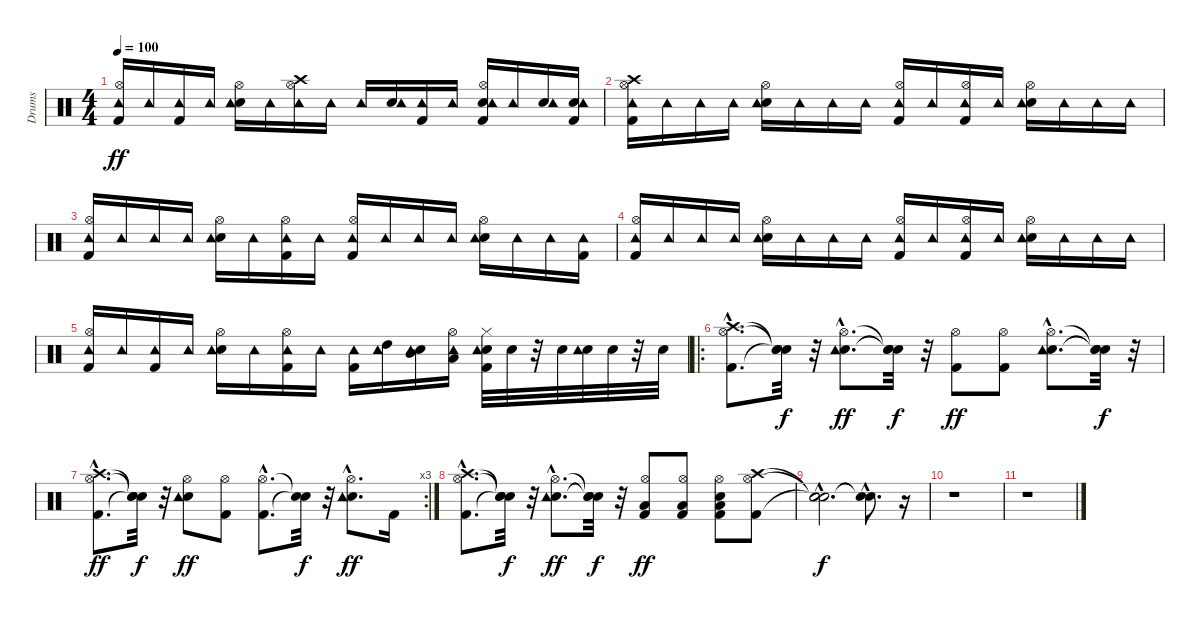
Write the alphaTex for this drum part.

\track ("Drums" "Drums") {instrument percussion}
\staff {score}
\articulation defaults
\ts (4 4)
\tempo 100
\clef neutral
\ks c
("Kick (hit) 2" "Hi-Hat (open)" "Tambourine (hit)").16{dy ff} "Tambourine (hit)".16 ("Kick (hit) 2" "Tambourine (hit)").16 "Tambourine (hit)".16 ("Snare (hit) 2" "Hi-Hat (open)" "Tambourine (hit)").16 "Tambourine (hit)".16 ("Hi-Hat (open)" "Crash high (hit)" "Tambourine (hit)").16 "Tambourine (hit)".16 "Tambourine (hit)".16 ("Snare (hit) 2" "Tambourine (hit)").16 ("Kick (hit) 2" "Tambourine (hit)").16 "Tambourine (hit)".16 ("Kick (hit) 2" "Snare (hit) 2" "Hi-Hat (open)" "Tambourine (hit)").16 "Tambourine (hit)".16 ("Snare (hit) 2" "Tambourine (hit)").16 ("Kick (hit) 2" "Snare (hit) 2" "Tambourine (hit)").16 |
("Kick (hit) 2" "Hi-Hat (open)" "Crash high (hit)" "Tambourine (hit)").16 "Tambourine (hit)".16 "Tambourine (hit)".16 "Tambourine (hit)".16 ("Snare (hit) 2" "Hi-Hat (open)" "Tambourine (hit)").16 "Tambourine (hit)".16 "Tambourine (hit)".16 "Tambourine (hit)".16 ("Kick (hit) 2" "Hi-Hat (open)" "Tambourine (hit)").16 "Tambourine (hit)".16 ("Kick (hit) 2" "Hi-Hat (open)" "Tambourine (hit)").16 "Tambourine (hit)".16 ("Snare (hit) 2" "Hi-Hat (open)" "Tambourine (hit)").16 "Tambourine (hit)".16 "Tambourine (hit)".16 "Tambourine (hit)".16 |
("Kick (hit) 2" "Hi-Hat (open)" "Tambourine (hit)").16 "Tambourine (hit)".16 "Tambourine (hit)".16 "Tambourine (hit)".16 ("Snare (hit) 2" "Hi-Hat (open)" "Tambourine (hit)").16 "Tambourine (hit)".16 ("Kick (hit) 2" "Hi-Hat (open)" "Tambourine (hit)").16 "Tambourine (hit)".16 ("Kick (hit) 2" "Hi-Hat (open)" "Tambourine (hit)").16 "Tambourine (hit)".16 "Tambourine (hit)".16 "Tambourine (hit)".16 ("Snare (hit) 2" "Hi-Hat (open)" "Tambourine (hit)").16 "Tambourine (hit)".16 "Tambourine (hit)".16 ("Kick (hit) 2" "Tambourine (hit)").16 |
("Kick (hit) 2" "Hi-Hat (open)" "Tambourine (hit)").16 "Tambourine (hit)".16 "Tambourine (hit)".16 "Tambourine (hit)".16 ("Snare (hit) 2" "Hi-Hat (open)" "Tambourine (hit)").16 "Tambourine (hit)".16 "Tambourine (hit)".16 "Tambourine (hit)".16 ("Kick (hit) 2" "Hi-Hat (open)" "Tambourine (hit)").16 "Tambourine (hit)".16 ("Kick (hit) 2" "Hi-Hat (open)" "Tambourine (hit)").16 "Tambourine (hit)".16 ("Snare (hit) 2" "Hi-Hat (open)" "Tambourine (hit)").16 "Tambourine (hit)".16 "Tambourine (hit)".16 "Tambourine (hit)".16 |
("Kick (hit) 2" "Hi-Hat (open)" "Tambourine (hit)").16 "Tambourine (hit)".16 ("Kick (hit) 2" "Tambourine (hit)").16 "Tambourine (hit)".16 ("Snare (hit) 2" "Hi-Hat (open)" "Tambourine (hit)").16 "Tambourine (hit)".16 ("Kick (hit) 2" "Hi-Hat (open)" "Tambourine (hit)").16 "Tambourine (hit)".16 ("Kick (hit) 2" "Tambourine (hit)").16 ("High Tom (hit)" "Tambourine (hit)").16 ("Snare (hit) 2" "Mid Tom (hit)" "Tambourine (hit)").16 ("Low Tom (hit)" "Hi-Hat (open)" "Tambourine (hit)").16 ("Kick (hit) 2" "Snare (hit) 2" "Hi-Hat (closed)" "Tambourine (hit)").32 "Snare (hit) 2".32 r.32 "Snare (hit) 2".32 ("Snare (hit) 2" "Tambourine (hit)").32 "Snare (hit) 2".32 r.32 "Snare (hit) 2".32 |
\ro
("Kick (hit) 2"{hac} "Hi-Hat (open)"{hac} "Crash high (hit)"{hac}).8{d} ("Snare (hit)"{t} "Snare (hit)"{t} "Snare (hit)"{t}).32{dy f} r.32 ("Snare (hit) 2"{hac} "Hi-Hat (open)"{hac} "Tambourine (hit)"{hac}).8{d dy ff} ("Snare (hit)"{t} "Snare (hit)"{t} "Snare (hit)"{t}).32{dy f} r.32 ("Kick (hit) 2" "Hi-Hat (open)").8{dy ff} ("Kick (hit) 2" "Hi-Hat (open)").8 ("Snare (hit) 2"{hac} "Hi-Hat (open)"{hac} "Tambourine (hit)"{hac}).8{d} ("Snare (hit)"{t} "Snare (hit)"{t} "Snare (hit)"{t}).32{dy f} r.32 |
\rc 3
("Kick (hit) 2"{hac} "Hi-Hat (open)"{hac} "Crash high (hit)"{hac}).8{d dy ff} ("Snare (hit)"{t} "Snare (hit)"{t} "Snare (hit)"{t}).32{dy f} r.32 ("Snare (hit) 2" "Hi-Hat (open)" "Tambourine (hit)").8{dy ff} ("Kick (hit) 2" "Hi-Hat (open)").8 ("Kick (hit) 2"{hac} "Hi-Hat (open)"{hac}).8{d} ("Snare (hit)"{t} "Snare (hit)"{t}).32{dy f} r.32 ("Snare (hit) 2"{hac} "Hi-Hat (open)"{hac} "Tambourine (hit)"{hac}).8{d dy ff} "Kick (hit) 2".16 |
("Kick (hit) 2"{hac} "Hi-Hat (open)"{hac} "Crash high (hit)"{hac}).8{d} ("Snare (hit)"{t} "Snare (hit)"{t} "Snare (hit)"{t}).32{dy f} r.32 ("Snare (hit) 2"{hac} "Hi-Hat (open)"{hac} "Tambourine (hit)"{hac}).8{d dy ff} ("Snare (hit)"{t} "Snare (hit)"{t} "Snare (hit)"{t}).32{dy f} r.32 ("Kick (hit) 2" "Low Floor Tom (hit)" "Hi-Hat (open)").8{dy ff} ("Kick (hit) 2" "Low Floor Tom (hit)" "Hi-Hat (open)").8 ("Kick (hit) 2" "Snare (hit) 2" "Low Floor Tom (hit)" "Hi-Hat (open)").8 ("Kick (hit) 2" "Hi-Hat (open)" "Crash high (hit)").8 |
("Snare (hit)"{hac t} "Snare (hit)"{hac t} "Snare (hit)"{t}).2{d dy f} ("Snare (hit)"{hac t} "Snare (hit)"{hac t}).8{d} r.16 |
r.1 |
r.1
